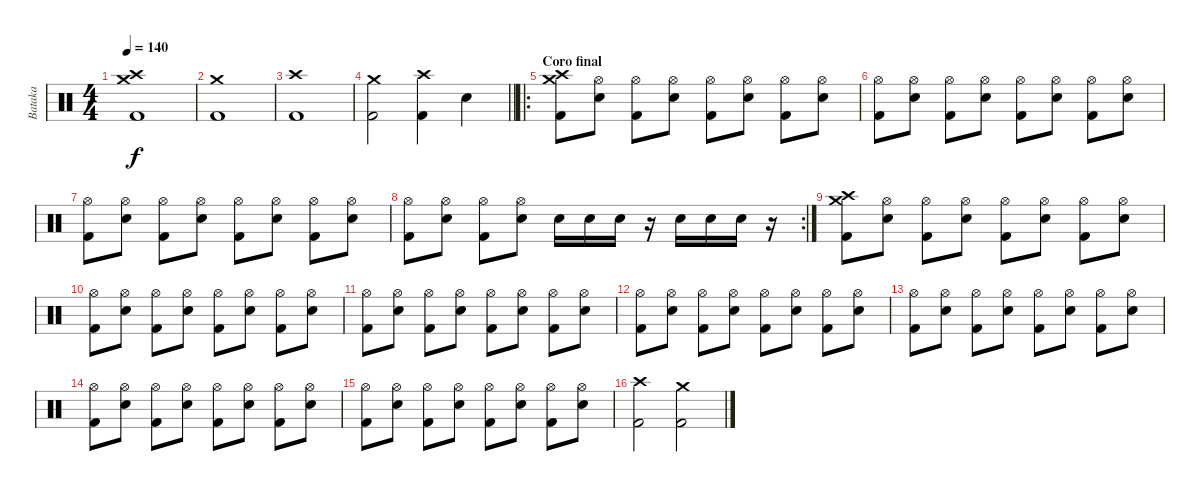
\track ("Bataka" "Bataka") {instrument percussion}
\staff {score}
\articulation defaults
\ts (4 4)
\tempo 140
\clef neutral
\ks c
("Crash high (hit)" "Crash medium (hit)" "Kick (hit) 2").1{dy f} |
("Crash medium (hit)" "Kick (hit) 2").1 |
("Crash high (hit)" "Kick (hit) 2").1 |
\barLineRight lightlight
("Crash medium (hit)" "Kick (hit) 2").2 ("Crash high (hit)" "Kick (hit) 2").4 "Electric Snare (hit)".4 |
\ro
\section ("" "Coro final")
("Crash high (hit)" "Crash medium (hit)" "Kick (hit) 2").8 ("Hi-Hat (open)" "Electric Snare (hit)").8 ("Hi-Hat (open)" "Kick (hit) 2").8 ("Hi-Hat (open)" "Electric Snare (hit)").8 ("Hi-Hat (open)" "Kick (hit) 2").8 ("Hi-Hat (open)" "Electric Snare (hit)").8 ("Hi-Hat (open)" "Kick (hit) 2").8 ("Hi-Hat (open)" "Electric Snare (hit)").8 |
("Hi-Hat (open)" "Kick (hit) 2").8 ("Hi-Hat (open)" "Electric Snare (hit)").8 ("Hi-Hat (open)" "Kick (hit) 2").8 ("Hi-Hat (open)" "Electric Snare (hit)").8 ("Hi-Hat (open)" "Kick (hit) 2").8 ("Hi-Hat (open)" "Electric Snare (hit)").8 ("Hi-Hat (open)" "Kick (hit) 2").8 ("Hi-Hat (open)" "Electric Snare (hit)").8 |
("Hi-Hat (open)" "Kick (hit) 2").8 ("Hi-Hat (open)" "Electric Snare (hit)").8 ("Hi-Hat (open)" "Kick (hit) 2").8 ("Hi-Hat (open)" "Electric Snare (hit)").8 ("Hi-Hat (open)" "Kick (hit) 2").8 ("Hi-Hat (open)" "Electric Snare (hit)").8 ("Hi-Hat (open)" "Kick (hit) 2").8 ("Hi-Hat (open)" "Electric Snare (hit)").8 |
\rc 2
("Hi-Hat (open)" "Kick (hit) 2").8 ("Hi-Hat (open)" "Electric Snare (hit)").8 ("Hi-Hat (open)" "Kick (hit) 2").8 ("Hi-Hat (open)" "Electric Snare (hit)").8 "Electric Snare (hit)".16 "Electric Snare (hit)".16 "Electric Snare (hit)".16 r.16 "Electric Snare (hit)".16 "Electric Snare (hit)".16 "Electric Snare (hit)".16 r.16 |
("Crash high (hit)" "Crash medium (hit)" "Kick (hit) 2").8 ("Hi-Hat (open)" "Electric Snare (hit)").8 ("Hi-Hat (open)" "Kick (hit) 2").8 ("Hi-Hat (open)" "Electric Snare (hit)").8 ("Hi-Hat (open)" "Kick (hit) 2").8 ("Hi-Hat (open)" "Electric Snare (hit)").8 ("Hi-Hat (open)" "Kick (hit) 2").8 ("Hi-Hat (open)" "Electric Snare (hit)").8 |
("Hi-Hat (open)" "Kick (hit) 2").8 ("Hi-Hat (open)" "Electric Snare (hit)").8 ("Hi-Hat (open)" "Kick (hit) 2").8 ("Hi-Hat (open)" "Electric Snare (hit)").8 ("Hi-Hat (open)" "Kick (hit) 2").8 ("Hi-Hat (open)" "Electric Snare (hit)").8 ("Hi-Hat (open)" "Kick (hit) 2").8 ("Hi-Hat (open)" "Electric Snare (hit)").8 |
("Hi-Hat (open)" "Kick (hit) 2").8 ("Hi-Hat (open)" "Electric Snare (hit)").8 ("Hi-Hat (open)" "Kick (hit) 2").8 ("Hi-Hat (open)" "Electric Snare (hit)").8 ("Hi-Hat (open)" "Kick (hit) 2").8 ("Hi-Hat (open)" "Electric Snare (hit)").8 ("Hi-Hat (open)" "Kick (hit) 2").8 ("Hi-Hat (open)" "Electric Snare (hit)").8 |
("Hi-Hat (open)" "Kick (hit) 2").8 ("Hi-Hat (open)" "Electric Snare (hit)").8 ("Hi-Hat (open)" "Kick (hit) 2").8 ("Hi-Hat (open)" "Electric Snare (hit)").8 ("Hi-Hat (open)" "Kick (hit) 2").8 ("Hi-Hat (open)" "Electric Snare (hit)").8 ("Hi-Hat (open)" "Kick (hit) 2").8 ("Hi-Hat (open)" "Electric Snare (hit)").8 |
("Hi-Hat (open)" "Kick (hit) 2").8 ("Hi-Hat (open)" "Electric Snare (hit)").8 ("Hi-Hat (open)" "Kick (hit) 2").8 ("Hi-Hat (open)" "Electric Snare (hit)").8 ("Hi-Hat (open)" "Kick (hit) 2").8 ("Hi-Hat (open)" "Electric Snare (hit)").8 ("Hi-Hat (open)" "Kick (hit) 2").8 ("Hi-Hat (open)" "Electric Snare (hit)").8 |
("Hi-Hat (open)" "Kick (hit) 2").8 ("Hi-Hat (open)" "Electric Snare (hit)").8 ("Hi-Hat (open)" "Kick (hit) 2").8 ("Hi-Hat (open)" "Electric Snare (hit)").8 ("Hi-Hat (open)" "Kick (hit) 2").8 ("Hi-Hat (open)" "Electric Snare (hit)").8 ("Hi-Hat (open)" "Kick (hit) 2").8 ("Hi-Hat (open)" "Electric Snare (hit)").8 |
("Hi-Hat (open)" "Kick (hit) 2").8 ("Hi-Hat (open)" "Electric Snare (hit)").8 ("Hi-Hat (open)" "Kick (hit) 2").8 ("Hi-Hat (open)" "Electric Snare (hit)").8 ("Hi-Hat (open)" "Kick (hit) 2").8 ("Hi-Hat (open)" "Electric Snare (hit)").8 ("Hi-Hat (open)" "Kick (hit) 2").8 ("Hi-Hat (open)" "Electric Snare (hit)").8 |
("Crash high (hit)" "Kick (hit) 2").2 ("Crash medium (hit)" "Kick (hit) 2").2
